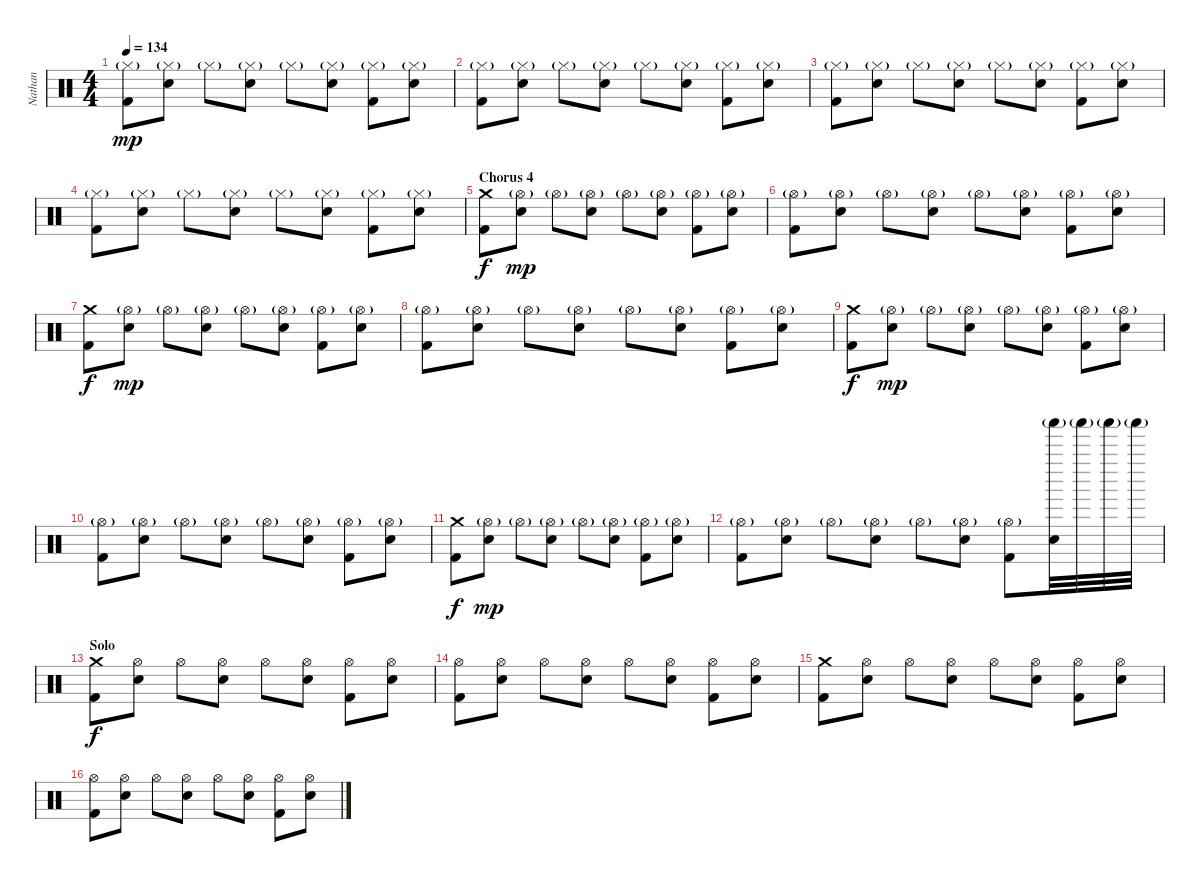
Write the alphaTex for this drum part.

\track ("Nathan" "Nathan") {instrument percussion}
\staff {score}
\articulation defaults
\ts (4 4)
\tempo 134
\clef neutral
\ks c
("Hi-Hat (closed)"{g} "Kick (hit) 2").8{dy mp} ("Hi-Hat (closed)"{g} "Snare (hit) 2").8 "Hi-Hat (closed)"{g}.8 ("Hi-Hat (closed)"{g} "Snare (hit) 2").8 "Hi-Hat (closed)"{g}.8 ("Hi-Hat (closed)"{g} "Snare (hit) 2").8 ("Hi-Hat (closed)"{g} "Kick (hit) 2").8 ("Hi-Hat (closed)"{g} "Snare (hit) 2").8 |
("Hi-Hat (closed)"{g} "Kick (hit) 2").8 ("Hi-Hat (closed)"{g} "Snare (hit) 2").8 "Hi-Hat (closed)"{g}.8 ("Hi-Hat (closed)"{g} "Snare (hit) 2").8 "Hi-Hat (closed)"{g}.8 ("Hi-Hat (closed)"{g} "Snare (hit) 2").8 ("Hi-Hat (closed)"{g} "Kick (hit) 2").8 ("Hi-Hat (closed)"{g} "Snare (hit) 2").8 |
("Hi-Hat (closed)"{g} "Kick (hit) 2").8 ("Hi-Hat (closed)"{g} "Snare (hit) 2").8 "Hi-Hat (closed)"{g}.8 ("Hi-Hat (closed)"{g} "Snare (hit) 2").8 "Hi-Hat (closed)"{g}.8 ("Hi-Hat (closed)"{g} "Snare (hit) 2").8 ("Hi-Hat (closed)"{g} "Kick (hit) 2").8 ("Hi-Hat (closed)"{g} "Snare (hit) 2").8 |
("Hi-Hat (closed)"{g} "Kick (hit) 2").8 ("Hi-Hat (closed)"{g} "Snare (hit) 2").8 "Hi-Hat (closed)"{g}.8 ("Hi-Hat (closed)"{g} "Snare (hit) 2").8 "Hi-Hat (closed)"{g}.8 ("Hi-Hat (closed)"{g} "Snare (hit) 2").8 ("Hi-Hat (closed)"{g} "Kick (hit) 2").8 ("Hi-Hat (closed)"{g} "Snare (hit) 2").8 |
\section ("" "Chorus 4")
("Crash medium (hit)" "Kick (hit) 2").8{dy f} ("Hi-Hat (open)"{g} "Snare (hit) 2").8{dy mp} "Hi-Hat (open)"{g}.8 ("Hi-Hat (open)"{g} "Snare (hit) 2").8 "Hi-Hat (open)"{g}.8 ("Hi-Hat (open)"{g} "Snare (hit) 2").8 ("Hi-Hat (open)"{g} "Kick (hit) 2").8 ("Hi-Hat (open)"{g} "Snare (hit) 2").8 |
("Hi-Hat (open)"{g} "Kick (hit) 2").8 ("Hi-Hat (open)"{g} "Snare (hit) 2").8 "Hi-Hat (open)"{g}.8 ("Hi-Hat (open)"{g} "Snare (hit) 2").8 "Hi-Hat (open)"{g}.8 ("Hi-Hat (open)"{g} "Snare (hit) 2").8 ("Hi-Hat (open)"{g} "Kick (hit) 2").8 ("Hi-Hat (open)"{g} "Snare (hit) 2").8 |
("Crash medium (hit)" "Kick (hit) 2").8{dy f} ("Hi-Hat (open)"{g} "Snare (hit) 2").8{dy mp} "Hi-Hat (open)"{g}.8 ("Hi-Hat (open)"{g} "Snare (hit) 2").8 "Hi-Hat (open)"{g}.8 ("Hi-Hat (open)"{g} "Snare (hit) 2").8 ("Hi-Hat (open)"{g} "Kick (hit) 2").8 ("Hi-Hat (open)"{g} "Snare (hit) 2").8 |
("Hi-Hat (open)"{g} "Kick (hit) 2").8 ("Hi-Hat (open)"{g} "Snare (hit) 2").8 "Hi-Hat (open)"{g}.8 ("Hi-Hat (open)"{g} "Snare (hit) 2").8 "Hi-Hat (open)"{g}.8 ("Hi-Hat (open)"{g} "Snare (hit) 2").8 ("Hi-Hat (open)"{g} "Kick (hit) 2").8 ("Hi-Hat (open)"{g} "Snare (hit) 2").8 |
("Crash medium (hit)" "Kick (hit) 2").8{dy f} ("Hi-Hat (open)"{g} "Snare (hit) 2").8{dy mp} "Hi-Hat (open)"{g}.8 ("Hi-Hat (open)"{g} "Snare (hit) 2").8 "Hi-Hat (open)"{g}.8 ("Hi-Hat (open)"{g} "Snare (hit) 2").8 ("Hi-Hat (open)"{g} "Kick (hit) 2").8 ("Hi-Hat (open)"{g} "Snare (hit) 2").8 |
("Hi-Hat (open)"{g} "Kick (hit) 2").8 ("Hi-Hat (open)"{g} "Snare (hit) 2").8 "Hi-Hat (open)"{g}.8 ("Hi-Hat (open)"{g} "Snare (hit) 2").8 "Hi-Hat (open)"{g}.8 ("Hi-Hat (open)"{g} "Snare (hit) 2").8 ("Hi-Hat (open)"{g} "Kick (hit) 2").8 ("Hi-Hat (open)"{g} "Snare (hit) 2").8 |
("Crash medium (hit)" "Kick (hit) 2").8{dy f} ("Hi-Hat (open)"{g} "Snare (hit) 2").8{dy mp} "Hi-Hat (open)"{g}.8 ("Hi-Hat (open)"{g} "Snare (hit) 2").8 "Hi-Hat (open)"{g}.8 ("Hi-Hat (open)"{g} "Snare (hit) 2").8 ("Hi-Hat (open)"{g} "Kick (hit) 2").8 ("Hi-Hat (open)"{g} "Snare (hit) 2").8 |
("Hi-Hat (open)"{g} "Kick (hit) 2").8 ("Hi-Hat (open)"{g} "Snare (hit) 2").8 "Hi-Hat (open)"{g}.8 ("Hi-Hat (open)"{g} "Snare (hit) 2").8 "Hi-Hat (open)"{g}.8 ("Hi-Hat (open)"{g} "Snare (hit) 2").8 ("Hi-Hat (open)"{g} "Kick (hit) 2").8 ("Shaker (hit)"{g} "Snare (hit) 2").32 "Shaker (hit)"{g}.32 "Shaker (hit)"{g}.32 "Shaker (hit)"{g}.32 |
\section ("" "Solo")
("Crash medium (hit)" "Kick (hit) 2").8{dy f} ("Hi-Hat (open)" "Snare (hit) 2").8 "Hi-Hat (open)".8 ("Hi-Hat (open)" "Snare (hit) 2").8 "Hi-Hat (open)".8 ("Hi-Hat (open)" "Snare (hit) 2").8 ("Hi-Hat (open)" "Kick (hit) 2").8 ("Hi-Hat (open)" "Snare (hit) 2").8 |
("Hi-Hat (open)" "Kick (hit) 2").8 ("Hi-Hat (open)" "Snare (hit) 2").8 "Hi-Hat (open)".8 ("Hi-Hat (open)" "Snare (hit) 2").8 "Hi-Hat (open)".8 ("Hi-Hat (open)" "Snare (hit) 2").8 ("Hi-Hat (open)" "Kick (hit) 2").8 ("Hi-Hat (open)" "Snare (hit) 2").8 |
("Crash medium (hit)" "Kick (hit) 2").8 ("Hi-Hat (open)" "Snare (hit) 2").8 "Hi-Hat (open)".8 ("Hi-Hat (open)" "Snare (hit) 2").8 "Hi-Hat (open)".8 ("Hi-Hat (open)" "Snare (hit) 2").8 ("Hi-Hat (open)" "Kick (hit) 2").8 ("Hi-Hat (open)" "Snare (hit) 2").8 |
("Hi-Hat (open)" "Kick (hit) 2").8 ("Hi-Hat (open)" "Snare (hit) 2").8 "Hi-Hat (open)".8 ("Hi-Hat (open)" "Snare (hit) 2").8 "Hi-Hat (open)".8 ("Hi-Hat (open)" "Snare (hit) 2").8 ("Hi-Hat (open)" "Kick (hit) 2").8 ("Hi-Hat (open)" "Snare (hit) 2").8
